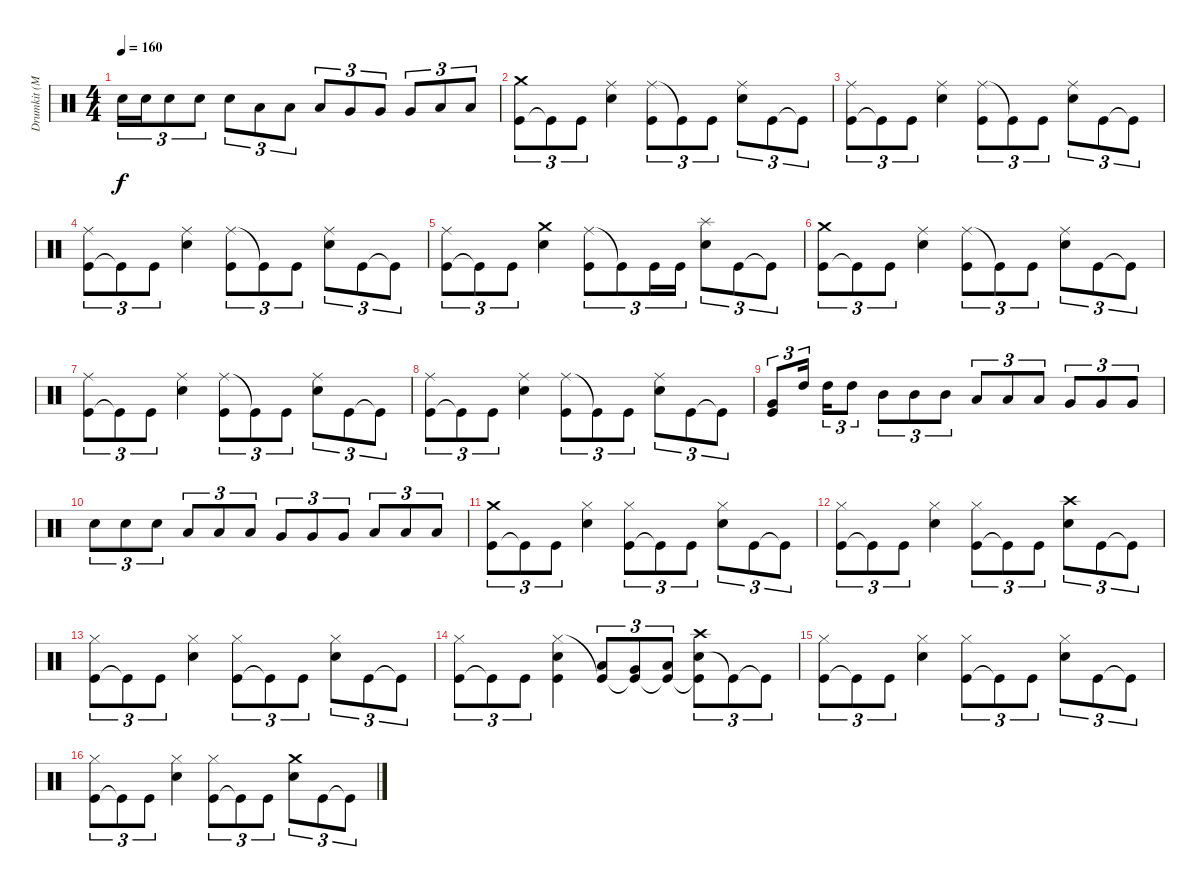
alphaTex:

\track ("Drumkit (McBrain)" "Drumkit (M") {instrument percussion}
\staff {score}
\articulation defaults
\ts (4 4)
\tempo 160
\clef neutral
\ks c "Snare (hit) 2".16{tu (3 2) dy f} "Snare (hit) 2".16{tu (3 2)} "Snare (hit) 2".8{tu (3 2)} "Snare (hit) 2".8{tu (3 2)} "Snare (hit) 2".8{tu (3 2)} "Low Tom (hit)".8{tu (3 2)} "Low Tom (hit)".8{tu (3 2)} "Low Tom (hit)".8{tu (3 2)} "Very Low Tom (hit)".8{tu (3 2)} "Very Low Tom (hit)".8{tu (3 2)} "Very Low Tom (hit)".8{tu (3 2)} "Low Floor Tom (hit)".8{tu (3 2)} "Low Floor Tom (hit)".8{tu (3 2)}
|
("Kick (hit)" "Crash medium (hit)").8{tu (3 2)} "Kick (hit)"{t}.8{tu (3 2)} "Kick (hit)".8{tu (3 2)} ("Ride (middle)" "Snare (hit) 2").4 ("Ride (middle)" "Kick (hit)").8{tu (3 2)} "Kick (hit)"{t}.8{tu (3 2)} "Kick (hit)".8{tu (3 2)} ("Ride (middle)" "Snare (hit) 2").8{tu (3 2)} "Kick (hit)".8{tu (3 2)} "Kick (hit)"{t}.8{tu (3 2)} |
("Kick (hit)" "Ride (middle)").8{tu (3 2)} "Kick (hit)"{t}.8{tu (3 2)} "Kick (hit)".8{tu (3 2)} ("Ride (middle)" "Snare (hit) 2").4 ("Ride (middle)" "Kick (hit)").8{tu (3 2)} "Kick (hit)"{t}.8{tu (3 2)} "Kick (hit)".8{tu (3 2)} ("Ride (middle)" "Snare (hit) 2").8{tu (3 2)} "Kick (hit)".8{tu (3 2)} "Kick (hit)"{t}.8{tu (3 2)} |
("Kick (hit)" "Ride (middle)").8{tu (3 2)} "Kick (hit)"{t}.8{tu (3 2)} "Kick (hit)".8{tu (3 2)} ("Ride (middle)" "Snare (hit) 2").4 ("Ride (middle)" "Kick (hit)").8{tu (3 2)} "Kick (hit)"{t}.8{tu (3 2)} "Kick (hit)".8{tu (3 2)} ("Ride (middle)" "Snare (hit) 2").8{tu (3 2)} "Kick (hit)".8{tu (3 2)} "Kick (hit)"{t}.8{tu (3 2)} |
("Kick (hit)" "Ride (middle)").8{tu (3 2)} "Kick (hit)"{t}.8{tu (3 2)} "Kick (hit)".8{tu (3 2)} ("Snare (hit) 2" "Crash medium (hit)").4 ("Ride (middle)" "Kick (hit)").8{tu (3 2)} "Kick (hit)"{t}.8{tu (3 2)} "Kick (hit)".16{tu (3 2)} "Kick (hit)".16{tu (3 2)} ("Snare (hit) 2" "Splash (hit)").8{tu (3 2)} "Kick (hit)".8{tu (3 2)} "Kick (hit)"{t}.8{tu (3 2)} |
("Kick (hit)" "Crash medium (hit)").8{tu (3 2)} "Kick (hit)"{t}.8{tu (3 2)} "Kick (hit)".8{tu (3 2)} ("Ride (middle)" "Snare (hit) 2").4 ("Ride (middle)" "Kick (hit)").8{tu (3 2)} "Kick (hit)"{t}.8{tu (3 2)} "Kick (hit)".8{tu (3 2)} ("Ride (middle)" "Snare (hit) 2").8{tu (3 2)} "Kick (hit)".8{tu (3 2)} "Kick (hit)"{t}.8{tu (3 2)} |
("Kick (hit)" "Ride (middle)").8{tu (3 2)} "Kick (hit)"{t}.8{tu (3 2)} "Kick (hit)".8{tu (3 2)} ("Ride (middle)" "Snare (hit) 2").4 ("Ride (middle)" "Kick (hit)").8{tu (3 2)} "Kick (hit)"{t}.8{tu (3 2)} "Kick (hit)".8{tu (3 2)} ("Ride (middle)" "Snare (hit) 2").8{tu (3 2)} "Kick (hit)".8{tu (3 2)} "Kick (hit)"{t}.8{tu (3 2)} |
("Kick (hit)" "Ride (middle)").8{tu (3 2)} "Kick (hit)"{t}.8{tu (3 2)} "Kick (hit)".8{tu (3 2)} ("Ride (middle)" "Snare (hit) 2").4 ("Ride (middle)" "Kick (hit)").8{tu (3 2)} "Kick (hit)"{t}.8{tu (3 2)} "Kick (hit)".8{tu (3 2)} ("Ride (middle)" "Snare (hit) 2").8{tu (3 2)} "Kick (hit)".8{tu (3 2)} "Kick (hit)"{t}.8{tu (3 2)} |
("Kick (hit)" "Very Low Tom (hit)").8{tu (3 2)} "High Tom (hit)".16{tu (3 2)} "High Tom (hit)".16{tu (3 2)} "High Tom (hit)".8{tu (3 2)} "Mid Tom (hit)".8{tu (3 2)} "Mid Tom (hit)".8{tu (3 2)} "Mid Tom (hit)".8{tu (3 2)} "Low Tom (hit)".8{tu (3 2)} "Low Tom (hit)".8{tu (3 2)} "Low Tom (hit)".8{tu (3 2)} "Very Low Tom (hit)".8{tu (3 2)} "Very Low Tom (hit)".8{tu (3 2)} "Very Low Tom (hit)".8{tu (3 2)} |
"Snare (hit) 2".8{tu (3 2)} "Snare (hit) 2".8{tu (3 2)} "Snare (hit) 2".8{tu (3 2)} "Low Tom (hit)".8{tu (3 2)} "Low Tom (hit)".8{tu (3 2)} "Low Tom (hit)".8{tu (3 2)} "Very Low Tom (hit)".8{tu (3 2)} "Very Low Tom (hit)".8{tu (3 2)} "Very Low Tom (hit)".8{tu (3 2)} "Low Floor Tom (hit)".8{tu (3 2)} "Low Floor Tom (hit)".8{tu (3 2)} "Low Floor Tom (hit)".8{tu (3 2)} |
("Kick (hit)" "Crash medium (hit)").8{tu (3 2)} "Kick (hit)"{t}.8{tu (3 2)} "Kick (hit)".8{tu (3 2)} ("Snare (hit) 2" "Hi-Hat (closed)").4 ("Kick (hit)" "Hi-Hat (closed)").8{tu (3 2)} "Kick (hit)"{t}.8{tu (3 2)} "Kick (hit)".8{tu (3 2)} ("Snare (hit) 2" "Hi-Hat (closed)").8{tu (3 2)} "Kick (hit)".8{tu (3 2)} "Kick (hit)"{t}.8{tu (3 2)} |
("Kick (hit)" "Hi-Hat (closed)").8{tu (3 2)} "Kick (hit)"{t}.8{tu (3 2)} "Kick (hit)".8{tu (3 2)} ("Snare (hit) 2" "Hi-Hat (closed)").4 ("Kick (hit)" "Hi-Hat (closed)").8{tu (3 2)} "Kick (hit)"{t}.8{tu (3 2)} "Kick (hit)".8{tu (3 2)} ("Snare (hit) 2" "Crash high (hit)").8{tu (3 2)} "Kick (hit)".8{tu (3 2)} "Kick (hit)"{t}.8{tu (3 2)} |
("Kick (hit)" "Hi-Hat (closed)").8{tu (3 2)} "Kick (hit)"{t}.8{tu (3 2)} "Kick (hit)".8{tu (3 2)} ("Snare (hit) 2" "Hi-Hat (closed)").4 ("Kick (hit)" "Hi-Hat (closed)").8{tu (3 2)} "Kick (hit)"{t}.8{tu (3 2)} "Kick (hit)".8{tu (3 2)} ("Snare (hit) 2" "Hi-Hat (closed)").8{tu (3 2)} "Kick (hit)".8{tu (3 2)} "Kick (hit)"{t}.8{tu (3 2)} |
("Kick (hit)" "Hi-Hat (closed)").8{tu (3 2)} "Kick (hit)"{t}.8{tu (3 2)} "Kick (hit)".8{tu (3 2)} ("Snare (hit) 2" "Hi-Hat (closed)" "Kick (hit)").4 ("Low Tom (hit)" "Kick (hit)"{t}).8{tu (3 2)} ("Very Low Tom (hit)" "Kick (hit)"{t}).8{tu (3 2)} ("Low Floor Tom (hit)" "Kick (hit)"{t}).8{tu (3 2)} ("Snare (hit) 2" "Kick (hit)"{t} "Crash high (hit)").8{tu (3 2)} "Kick (hit)"{t}.8{tu (3 2)} "Kick (hit)"{t}.8{tu (3 2)} |
("Kick (hit)" "Hi-Hat (closed)").8{tu (3 2)} "Kick (hit)"{t}.8{tu (3 2)} "Kick (hit)".8{tu (3 2)} ("Snare (hit) 2" "Hi-Hat (closed)").4 ("Kick (hit)" "Hi-Hat (closed)").8{tu (3 2)} "Kick (hit)"{t}.8{tu (3 2)} "Kick (hit)".8{tu (3 2)} ("Snare (hit) 2" "Hi-Hat (closed)").8{tu (3 2)} "Kick (hit)".8{tu (3 2)} "Kick (hit)"{t}.8{tu (3 2)} |
("Kick (hit)" "Hi-Hat (closed)").8{tu (3 2)} "Kick (hit)"{t}.8{tu (3 2)} "Kick (hit)".8{tu (3 2)} ("Snare (hit) 2" "Hi-Hat (closed)").4 ("Kick (hit)" "Hi-Hat (closed)").8{tu (3 2)} "Kick (hit)"{t}.8{tu (3 2)} "Kick (hit)".8{tu (3 2)} ("Snare (hit) 2" "Crash medium (hit)").8{tu (3 2)} "Kick (hit)".8{tu (3 2)} "Kick (hit)"{t}.8{tu (3 2)}
